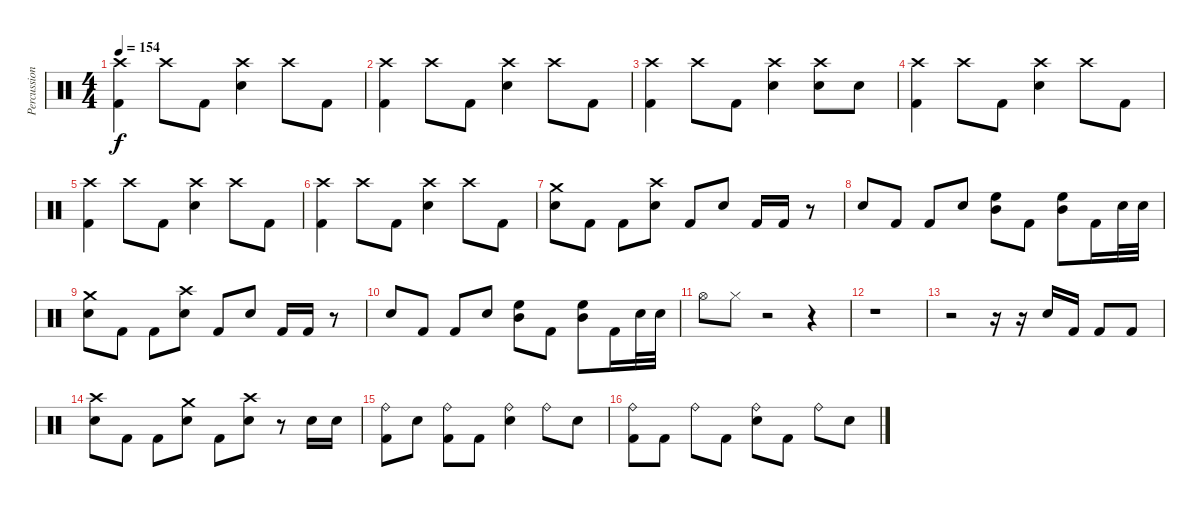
\track ("Percussion" "Percussion") {instrument percussion}
\staff {score}
\articulation defaults
\ts (4 4)
\tempo 154
\clef neutral
\ks c
("Crash high (hit)" "Kick (hit) 2").4{dy f} "Crash high (hit)".8 "Kick (hit) 2".8 ("Crash high (hit)" "Snare (hit) 2").4 "Crash high (hit)".8 "Kick (hit) 2".8 |
("Crash high (hit)" "Kick (hit) 2").4 "Crash high (hit)".8 "Kick (hit) 2".8 ("Crash high (hit)" "Snare (hit) 2").4 "Crash high (hit)".8 "Kick (hit) 2".8 |
("Crash high (hit)" "Kick (hit) 2").4 "Crash high (hit)".8 "Kick (hit) 2".8 ("Crash high (hit)" "Snare (hit) 2").4 ("Crash high (hit)" "Snare (hit) 2").8 "Snare (hit) 2".8 |
("Crash high (hit)" "Kick (hit) 2").4 "Crash high (hit)".8 "Kick (hit) 2".8 ("Crash high (hit)" "Snare (hit) 2").4 "Crash high (hit)".8 "Kick (hit) 2".8 |
("Crash high (hit)" "Kick (hit) 2").4 "Crash high (hit)".8 "Kick (hit) 2".8 ("Crash high (hit)" "Snare (hit) 2").4 "Crash high (hit)".8 "Kick (hit) 2".8 |
("Crash high (hit)" "Kick (hit) 2").4 "Crash high (hit)".8 "Kick (hit) 2".8 ("Crash high (hit)" "Snare (hit) 2").4 "Crash high (hit)".8 "Kick (hit) 2".8 |
("Crash medium (hit)" "Snare (hit) 2").8 "Kick (hit) 2".8 "Kick (hit) 2".8 ("Crash high (hit)" "Snare (hit) 2").8 "Kick (hit) 2".8 "Snare (hit) 2".8 "Kick (hit) 2".16 "Kick (hit) 2".16 r.8 |
"Snare (hit) 2".8 "Kick (hit) 2".8 "Kick (hit) 2".8 "Snare (hit) 2".8 ("High Floor Tom (hit)" "Mid Tom (hit)").8 "Kick (hit) 2".8 ("High Floor Tom (hit)" "Mid Tom (hit)").8 "Kick (hit) 2".16 "Snare (hit) 2".32 "Snare (hit) 2".32 |
("Crash medium (hit)" "Snare (hit) 2").8 "Kick (hit) 2".8 "Kick (hit) 2".8 ("Crash high (hit)" "Snare (hit) 2").8 "Kick (hit) 2".8 "Snare (hit) 2".8 "Kick (hit) 2".16 "Kick (hit) 2".16 r.8 |
"Snare (hit) 2".8 "Kick (hit) 2".8 "Kick (hit) 2".8 "Snare (hit) 2".8 ("High Floor Tom (hit)" "Mid Tom (hit)").8 "Kick (hit) 2".8 ("High Floor Tom (hit)" "Mid Tom (hit)").8 "Kick (hit) 2".16 "Snare (hit) 2".32 "Snare (hit) 2".32 |
"Hi-Hat (open)".8 "Hi-Hat (closed)".8 r.2 r.4 |
r.1 |
r.2 r.16 r.16 "Snare (hit) 2".16 "Kick (hit) 2".16 "Kick (hit) 2".8 "Kick (hit) 2".8 |
("Crash high (hit)" "Snare (hit) 2").8 "Kick (hit) 2".8 "Kick (hit) 2".8 ("Crash medium (hit)" "Snare (hit) 2").8 "Kick (hit) 2".8 ("Crash high (hit)" "Snare (hit) 2").8 r.8 "Snare (hit) 2".16 "Snare (hit) 2".16 |
("Ride (bell)" "Kick (hit) 2").8 "Snare (hit) 2".8 ("Ride (bell)" "Kick (hit) 2").8 "Kick (hit) 2".8 ("Ride (bell)" "Snare (hit) 2").4 "Ride (bell)".8 "Snare (hit) 2".8 |
("Ride (bell)" "Kick (hit) 2").8 "Kick (hit) 2".8 "Ride (bell)".8 "Kick (hit) 2".8 ("Ride (bell)" "Snare (hit) 2").8 "Kick (hit) 2".8 "Ride (bell)".8 "Snare (hit) 2".8
